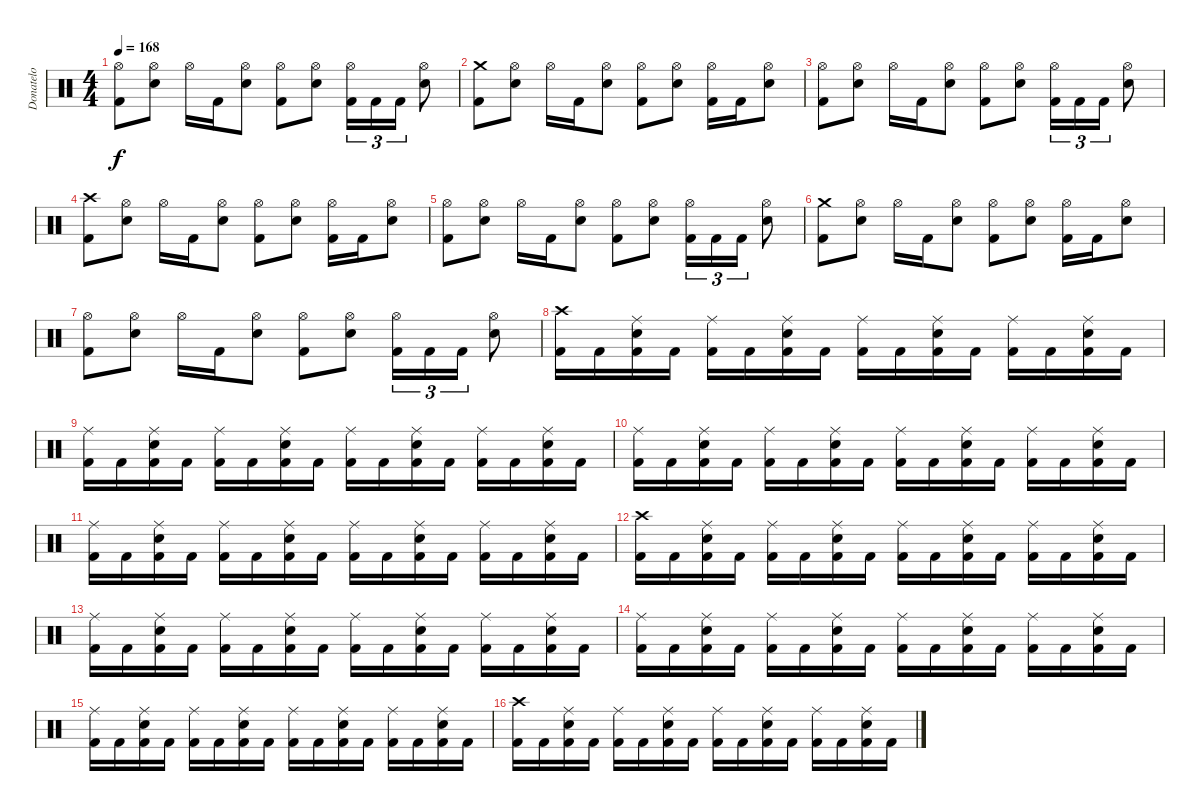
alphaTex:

\track ("Donatelo" "Donatelo") {instrument percussion}
\staff {score}
\articulation defaults
\ts (4 4)
\tempo 168
\clef neutral
\ks c
("Kick (hit) 2" "Hi-Hat (open)").8{dy f} ("Electric Snare (hit)" "Hi-Hat (open)").8 "Hi-Hat (open)".16 "Kick (hit) 2".16 ("Electric Snare (hit)" "Hi-Hat (open)").8 ("Kick (hit) 2" "Hi-Hat (open)").8 ("Electric Snare (hit)" "Hi-Hat (open)").8 ("Kick (hit) 2" "Hi-Hat (open)").16{tu (3 2)} "Kick (hit) 2".16{tu (3 2)} "Kick (hit) 2".16{tu (3 2)} ("Electric Snare (hit)" "Hi-Hat (open)").8 |
("Kick (hit) 2" "Crash medium (hit)").8 ("Electric Snare (hit)" "Hi-Hat (open)").8 "Hi-Hat (open)".16 "Kick (hit) 2".16 ("Electric Snare (hit)" "Hi-Hat (open)").8 ("Kick (hit) 2" "Hi-Hat (open)").8 ("Electric Snare (hit)" "Hi-Hat (open)").8 ("Kick (hit) 2" "Hi-Hat (open)").16 "Kick (hit) 2".16 ("Electric Snare (hit)" "Hi-Hat (open)").8 |
("Kick (hit) 2" "Hi-Hat (open)").8 ("Electric Snare (hit)" "Hi-Hat (open)").8 "Hi-Hat (open)".16 "Kick (hit) 2".16 ("Electric Snare (hit)" "Hi-Hat (open)").8 ("Kick (hit) 2" "Hi-Hat (open)").8 ("Electric Snare (hit)" "Hi-Hat (open)").8 ("Kick (hit) 2" "Hi-Hat (open)").16{tu (3 2)} "Kick (hit) 2".16{tu (3 2)} "Kick (hit) 2".16{tu (3 2)} ("Electric Snare (hit)" "Hi-Hat (open)").8 |
("Kick (hit) 2" "Crash high (hit)").8 ("Electric Snare (hit)" "Hi-Hat (open)").8 "Hi-Hat (open)".16 "Kick (hit) 2".16 ("Electric Snare (hit)" "Hi-Hat (open)").8 ("Kick (hit) 2" "Hi-Hat (open)").8 ("Electric Snare (hit)" "Hi-Hat (open)").8 ("Kick (hit) 2" "Hi-Hat (open)").16 "Kick (hit) 2".16 ("Electric Snare (hit)" "Hi-Hat (open)").8 |
("Kick (hit) 2" "Hi-Hat (open)").8 ("Electric Snare (hit)" "Hi-Hat (open)").8 "Hi-Hat (open)".16 "Kick (hit) 2".16 ("Electric Snare (hit)" "Hi-Hat (open)").8 ("Kick (hit) 2" "Hi-Hat (open)").8 ("Electric Snare (hit)" "Hi-Hat (open)").8 ("Kick (hit) 2" "Hi-Hat (open)").16{tu (3 2)} "Kick (hit) 2".16{tu (3 2)} "Kick (hit) 2".16{tu (3 2)} ("Electric Snare (hit)" "Hi-Hat (open)").8 |
("Kick (hit) 2" "Crash medium (hit)").8 ("Electric Snare (hit)" "Hi-Hat (open)").8 "Hi-Hat (open)".16 "Kick (hit) 2".16 ("Electric Snare (hit)" "Hi-Hat (open)").8 ("Kick (hit) 2" "Hi-Hat (open)").8 ("Electric Snare (hit)" "Hi-Hat (open)").8 ("Kick (hit) 2" "Hi-Hat (open)").16 "Kick (hit) 2".16 ("Electric Snare (hit)" "Hi-Hat (open)").8 |
("Kick (hit) 2" "Hi-Hat (open)").8 ("Electric Snare (hit)" "Hi-Hat (open)").8 "Hi-Hat (open)".16 "Kick (hit) 2".16 ("Electric Snare (hit)" "Hi-Hat (open)").8 ("Kick (hit) 2" "Hi-Hat (open)").8 ("Electric Snare (hit)" "Hi-Hat (open)").8 ("Kick (hit) 2" "Hi-Hat (open)").16{tu (3 2)} "Kick (hit) 2".16{tu (3 2)} "Kick (hit) 2".16{tu (3 2)} ("Electric Snare (hit)" "Hi-Hat (open)").8 |
("Kick (hit) 2" "Crash high (hit)").16 "Kick (hit) 2".16 ("Kick (hit) 2" "Electric Snare (hit)" "Ride (middle)").16 "Kick (hit) 2".16 ("Kick (hit) 2" "Ride (middle)").16 "Kick (hit) 2".16 ("Kick (hit) 2" "Electric Snare (hit)" "Ride (middle)").16 "Kick (hit) 2".16 ("Kick (hit) 2" "Ride (middle)").16 "Kick (hit) 2".16 ("Kick (hit) 2" "Electric Snare (hit)" "Ride (middle)").16 "Kick (hit) 2".16 ("Kick (hit) 2" "Ride (middle)").16 "Kick (hit) 2".16 ("Kick (hit) 2" "Electric Snare (hit)" "Ride (middle)").16 "Kick (hit) 2".16 |
("Kick (hit) 2" "Ride (middle)").16 "Kick (hit) 2".16 ("Kick (hit) 2" "Electric Snare (hit)" "Ride (middle)").16 "Kick (hit) 2".16 ("Kick (hit) 2" "Ride (middle)").16 "Kick (hit) 2".16 ("Kick (hit) 2" "Electric Snare (hit)" "Ride (middle)").16 "Kick (hit) 2".16 ("Kick (hit) 2" "Ride (middle)").16 "Kick (hit) 2".16 ("Kick (hit) 2" "Electric Snare (hit)" "Ride (middle)").16 "Kick (hit) 2".16 ("Kick (hit) 2" "Ride (middle)").16 "Kick (hit) 2".16 ("Kick (hit) 2" "Electric Snare (hit)" "Ride (middle)").16 "Kick (hit) 2".16 |
("Kick (hit) 2" "Ride (middle)").16 "Kick (hit) 2".16 ("Kick (hit) 2" "Electric Snare (hit)" "Ride (middle)").16 "Kick (hit) 2".16 ("Kick (hit) 2" "Ride (middle)").16 "Kick (hit) 2".16 ("Kick (hit) 2" "Electric Snare (hit)" "Ride (middle)").16 "Kick (hit) 2".16 ("Kick (hit) 2" "Ride (middle)").16 "Kick (hit) 2".16 ("Kick (hit) 2" "Electric Snare (hit)" "Ride (middle)").16 "Kick (hit) 2".16 ("Kick (hit) 2" "Ride (middle)").16 "Kick (hit) 2".16 ("Kick (hit) 2" "Electric Snare (hit)" "Ride (middle)").16 "Kick (hit) 2".16 |
("Kick (hit) 2" "Ride (middle)").16 "Kick (hit) 2".16 ("Kick (hit) 2" "Electric Snare (hit)" "Ride (middle)").16 "Kick (hit) 2".16 ("Kick (hit) 2" "Ride (middle)").16 "Kick (hit) 2".16 ("Kick (hit) 2" "Electric Snare (hit)" "Ride (middle)").16 "Kick (hit) 2".16 ("Kick (hit) 2" "Ride (middle)").16 "Kick (hit) 2".16 ("Kick (hit) 2" "Electric Snare (hit)" "Ride (middle)").16 "Kick (hit) 2".16 ("Kick (hit) 2" "Ride (middle)").16 "Kick (hit) 2".16 ("Kick (hit) 2" "Electric Snare (hit)" "Ride (middle)").16 "Kick (hit) 2".16 |
("Kick (hit) 2" "Crash high (hit)").16 "Kick (hit) 2".16 ("Kick (hit) 2" "Electric Snare (hit)" "Ride (middle)").16 "Kick (hit) 2".16 ("Kick (hit) 2" "Ride (middle)").16 "Kick (hit) 2".16 ("Kick (hit) 2" "Electric Snare (hit)" "Ride (middle)").16 "Kick (hit) 2".16 ("Kick (hit) 2" "Ride (middle)").16 "Kick (hit) 2".16 ("Kick (hit) 2" "Electric Snare (hit)" "Ride (middle)").16 "Kick (hit) 2".16 ("Kick (hit) 2" "Ride (middle)").16 "Kick (hit) 2".16 ("Kick (hit) 2" "Electric Snare (hit)" "Ride (middle)").16 "Kick (hit) 2".16 |
("Kick (hit) 2" "Ride (middle)").16 "Kick (hit) 2".16 ("Kick (hit) 2" "Electric Snare (hit)" "Ride (middle)").16 "Kick (hit) 2".16 ("Kick (hit) 2" "Ride (middle)").16 "Kick (hit) 2".16 ("Kick (hit) 2" "Electric Snare (hit)" "Ride (middle)").16 "Kick (hit) 2".16 ("Kick (hit) 2" "Ride (middle)").16 "Kick (hit) 2".16 ("Kick (hit) 2" "Electric Snare (hit)" "Ride (middle)").16 "Kick (hit) 2".16 ("Kick (hit) 2" "Ride (middle)").16 "Kick (hit) 2".16 ("Kick (hit) 2" "Electric Snare (hit)" "Ride (middle)").16 "Kick (hit) 2".16 |
("Kick (hit) 2" "Ride (middle)").16 "Kick (hit) 2".16 ("Kick (hit) 2" "Electric Snare (hit)" "Ride (middle)").16 "Kick (hit) 2".16 ("Kick (hit) 2" "Ride (middle)").16 "Kick (hit) 2".16 ("Kick (hit) 2" "Electric Snare (hit)" "Ride (middle)").16 "Kick (hit) 2".16 ("Kick (hit) 2" "Ride (middle)").16 "Kick (hit) 2".16 ("Kick (hit) 2" "Electric Snare (hit)" "Ride (middle)").16 "Kick (hit) 2".16 ("Kick (hit) 2" "Ride (middle)").16 "Kick (hit) 2".16 ("Kick (hit) 2" "Electric Snare (hit)" "Ride (middle)").16 "Kick (hit) 2".16 |
("Kick (hit) 2" "Ride (middle)").16 "Kick (hit) 2".16 ("Kick (hit) 2" "Electric Snare (hit)" "Ride (middle)").16 "Kick (hit) 2".16 ("Kick (hit) 2" "Ride (middle)").16 "Kick (hit) 2".16 ("Kick (hit) 2" "Electric Snare (hit)" "Ride (middle)").16 "Kick (hit) 2".16 ("Kick (hit) 2" "Ride (middle)").16 "Kick (hit) 2".16 ("Kick (hit) 2" "Electric Snare (hit)" "Ride (middle)").16 "Kick (hit) 2".16 ("Kick (hit) 2" "Ride (middle)").16 "Kick (hit) 2".16 ("Kick (hit) 2" "Electric Snare (hit)" "Ride (middle)").16 "Kick (hit) 2".16 |
("Kick (hit) 2" "Crash high (hit)").16 "Kick (hit) 2".16 ("Kick (hit) 2" "Electric Snare (hit)" "Ride (middle)").16 "Kick (hit) 2".16 ("Kick (hit) 2" "Ride (middle)").16 "Kick (hit) 2".16 ("Kick (hit) 2" "Electric Snare (hit)" "Ride (middle)").16 "Kick (hit) 2".16 ("Kick (hit) 2" "Ride (middle)").16 "Kick (hit) 2".16 ("Kick (hit) 2" "Electric Snare (hit)" "Ride (middle)").16 "Kick (hit) 2".16 ("Kick (hit) 2" "Ride (middle)").16 "Kick (hit) 2".16 ("Kick (hit) 2" "Electric Snare (hit)" "Ride (middle)").16 "Kick (hit) 2".16
